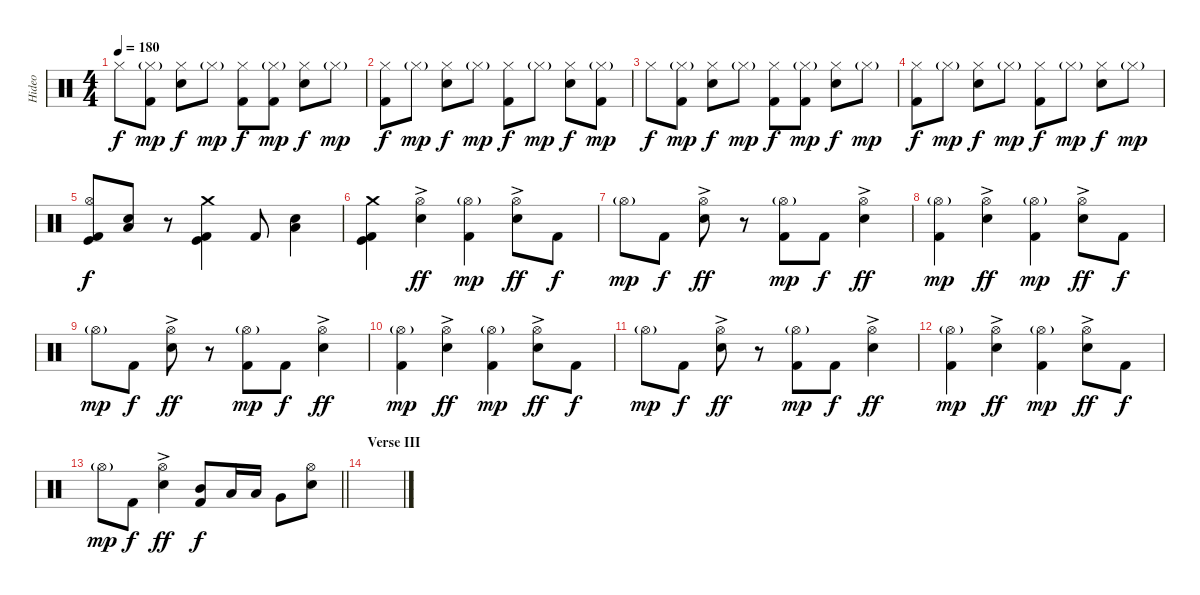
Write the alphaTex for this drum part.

\track ("Hideo" "Hideo") {instrument percussion}
\staff {score}
\articulation defaults
\ts (4 4)
\tempo 180
\clef neutral
\ks c "Hi-Hat (closed)".8{dy f}
("Hi-Hat (closed)"{g} "Kick (hit) 2").8{dy mp} ("Hi-Hat (closed)" "Electric Snare (hit)").8{dy f} "Hi-Hat (closed)"{g}.8{dy mp} ("Hi-Hat (closed)" "Kick (hit) 2").8{dy f} ("Hi-Hat (closed)"{g} "Kick (hit) 2").8{dy mp} ("Hi-Hat (closed)" "Electric Snare (hit)").8{dy f} "Hi-Hat (closed)"{g}.8{dy mp} |
("Hi-Hat (closed)" "Kick (hit) 2").8{dy f} "Hi-Hat (closed)"{g}.8{dy mp} ("Hi-Hat (closed)" "Electric Snare (hit)").8{dy f} "Hi-Hat (closed)"{g}.8{dy mp} ("Hi-Hat (closed)" "Kick (hit) 2").8{dy f} "Hi-Hat (closed)"{g}.8{dy mp} ("Hi-Hat (closed)" "Electric Snare (hit)").8{dy f} ("Hi-Hat (closed)"{g} "Kick (hit) 2").8{dy mp} |
"Hi-Hat (closed)".8{dy f} ("Hi-Hat (closed)"{g} "Kick (hit) 2").8{dy mp} ("Hi-Hat (closed)" "Electric Snare (hit)").8{dy f} "Hi-Hat (closed)"{g}.8{dy mp} ("Hi-Hat (closed)" "Kick (hit) 2").8{dy f} ("Hi-Hat (closed)"{g} "Kick (hit) 2").8{dy mp} ("Hi-Hat (closed)" "Electric Snare (hit)").8{dy f} "Hi-Hat (closed)"{g}.8{dy mp} |
("Hi-Hat (closed)" "Kick (hit) 2").8{dy f} "Hi-Hat (closed)"{g}.8{dy mp} ("Hi-Hat (closed)" "Electric Snare (hit)").8{dy f} "Hi-Hat (closed)"{g}.8{dy mp} ("Hi-Hat (closed)" "Kick (hit) 2").8{dy f} "Hi-Hat (closed)"{g}.8{dy mp} ("Hi-Hat (closed)" "Electric Snare (hit)").8{dy f} "Hi-Hat (closed)"{g}.8{dy mp} |
("Hi-Hat (open)" "Kick (hit) 2" "Kick (hit)").8{dy f} ("Low Floor Tom (hit)" "Electric Snare (hit)").8 r.8 ("Crash medium (hit)" "Kick (hit)" "Kick (hit) 2").4 "Kick (hit) 2".8 ("Electric Snare (hit)" "Low Floor Tom (hit)").4 |
("Crash medium (hit)" "Kick (hit) 2" "Kick (hit)").4 ("Hi-Hat (open)"{ac} "Electric Snare (hit)").4{dy ff} ("Hi-Hat (open)"{g} "Kick (hit) 2").4{dy mp} ("Hi-Hat (open)"{ac} "Electric Snare (hit)").8{dy ff} "Kick (hit) 2".8{dy f} |
"Hi-Hat (open)"{g}.8{dy mp} "Kick (hit) 2".8{dy f} ("Hi-Hat (open)"{ac} "Electric Snare (hit)").8{dy ff} r.8 ("Hi-Hat (open)"{g} "Kick (hit) 2").8{dy mp} "Kick (hit) 2".8{dy f} ("Hi-Hat (open)"{ac} "Electric Snare (hit)").4{dy ff} |
("Hi-Hat (open)"{g} "Kick (hit) 2").4{dy mp} ("Hi-Hat (open)"{ac} "Electric Snare (hit)").4{dy ff} ("Hi-Hat (open)"{g} "Kick (hit) 2").4{dy mp} ("Hi-Hat (open)"{ac} "Electric Snare (hit)").8{dy ff} "Kick (hit) 2".8{dy f} |
"Hi-Hat (open)"{g}.8{dy mp} "Kick (hit) 2".8{dy f} ("Hi-Hat (open)"{ac} "Electric Snare (hit)").8{dy ff} r.8 ("Hi-Hat (open)"{g} "Kick (hit) 2").8{dy mp} "Kick (hit) 2".8{dy f} ("Hi-Hat (open)"{ac} "Electric Snare (hit)").4{dy ff} |
("Hi-Hat (open)"{g} "Kick (hit) 2").4{dy mp} ("Hi-Hat (open)"{ac} "Electric Snare (hit)").4{dy ff} ("Hi-Hat (open)"{g} "Kick (hit) 2").4{dy mp} ("Hi-Hat (open)"{ac} "Electric Snare (hit)").8{dy ff} "Kick (hit) 2".8{dy f} |
"Hi-Hat (open)"{g}.8{dy mp} "Kick (hit) 2".8{dy f} ("Hi-Hat (open)"{ac} "Electric Snare (hit)").8{dy ff} r.8 ("Hi-Hat (open)"{g} "Kick (hit) 2").8{dy mp} "Kick (hit) 2".8{dy f} ("Hi-Hat (open)"{ac} "Electric Snare (hit)").4{dy ff} |
("Hi-Hat (open)"{g} "Kick (hit) 2").4{dy mp} ("Hi-Hat (open)"{ac} "Electric Snare (hit)").4{dy ff} ("Hi-Hat (open)"{g} "Kick (hit) 2").4{dy mp} ("Hi-Hat (open)"{ac} "Electric Snare (hit)").8{dy ff} "Kick (hit) 2".8{dy f} |
\barLineRight lightlight "Hi-Hat (open)"{g}.8{dy mp} "Kick (hit) 2".8{dy f}
("Hi-Hat (open)"{ac} "Electric Snare (hit)").4{dy ff} ("Mid Tom (hit)" "Kick (hit) 2").8{dy f} "Low Tom (hit)".16 "Low Tom (hit)".16 "Very Low Tom (hit)".8 ("Hi-Hat (open)" "Electric Snare (hit)").8 |
\section ("" "Verse III")
